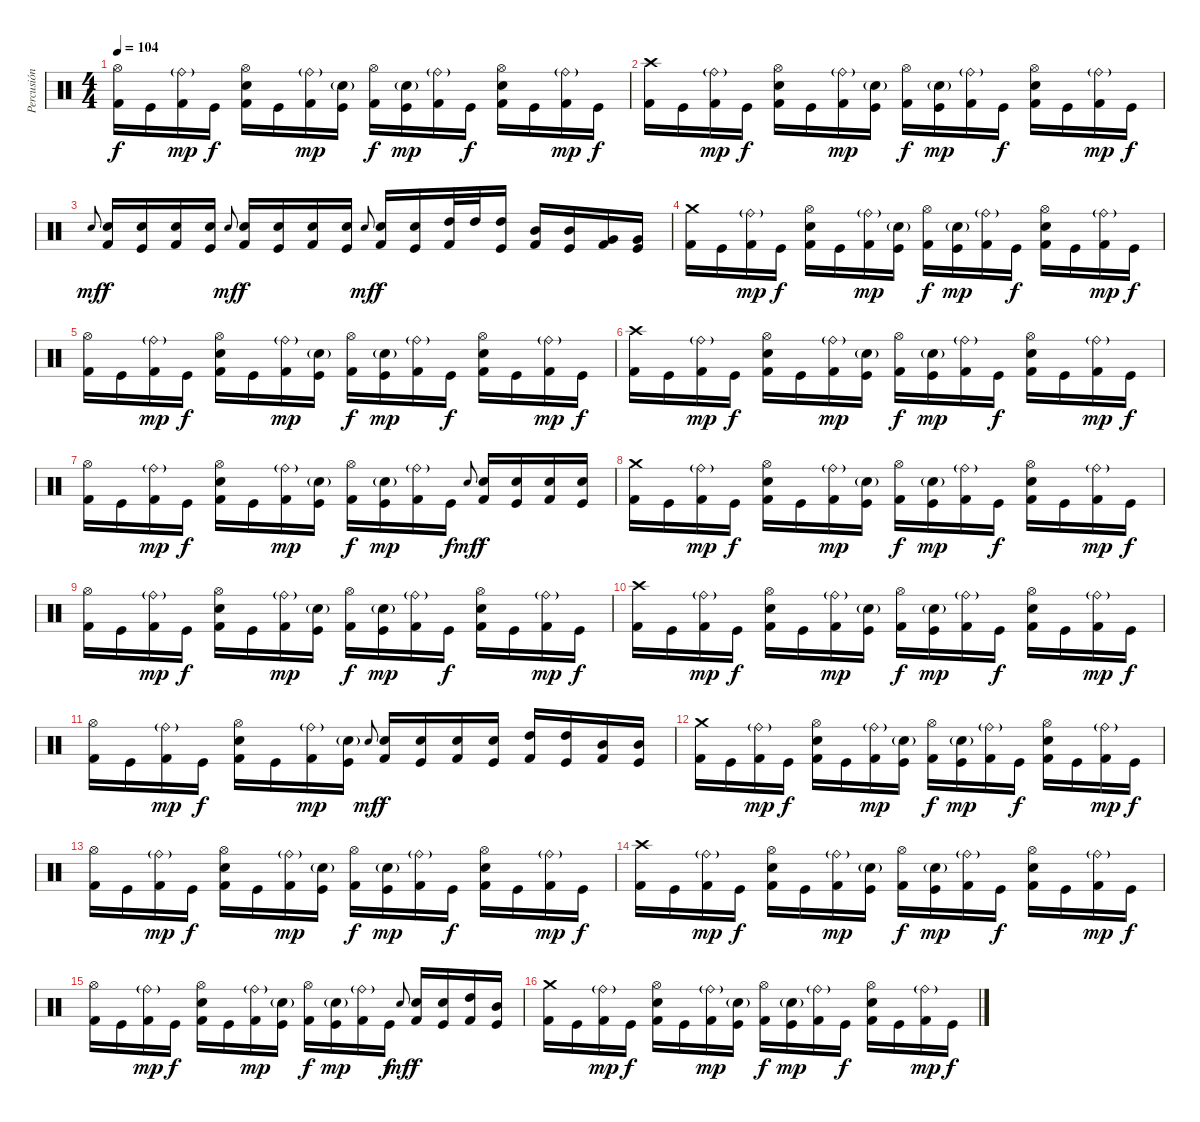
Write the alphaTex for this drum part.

\track ("Percusión" "Percusión") {instrument percussion}
\staff {score}
\articulation defaults
\ts (4 4)
\tempo 104
\clef neutral
\ks c
("Hi-Hat (open)" "Kick (hit) 2").16{dy f} "Kick (hit)".16 ("Ride (bell)"{g} "Kick (hit) 2").16{dy mp} "Kick (hit)".16{dy f} ("Hi-Hat (open)" "Snare (hit) 2" "Kick (hit) 2").16 "Kick (hit)".16 ("Ride (bell)"{g} "Kick (hit) 2").16{dy mp} ("Snare (hit) 2"{g} "Kick (hit)").16 ("Hi-Hat (open)" "Kick (hit) 2").16{dy f} ("Snare (hit) 2"{g} "Kick (hit)").16{dy mp} ("Ride (bell)"{g} "Kick (hit) 2").16 "Kick (hit)".16{dy f} ("Hi-Hat (open)" "Snare (hit) 2" "Kick (hit) 2").16 "Kick (hit)".16 ("Ride (bell)"{g} "Kick (hit) 2").16{dy mp} "Kick (hit)".16{dy f} |
("Crash high (hit)" "Kick (hit) 2").16 "Kick (hit)".16 ("Ride (bell)"{g} "Kick (hit) 2").16{dy mp} "Kick (hit)".16{dy f} ("Hi-Hat (open)" "Snare (hit) 2" "Kick (hit) 2").16 "Kick (hit)".16 ("Ride (bell)"{g} "Kick (hit) 2").16{dy mp} ("Snare (hit) 2"{g} "Kick (hit)").16 ("Hi-Hat (open)" "Kick (hit) 2").16{dy f} ("Snare (hit) 2"{g} "Kick (hit)").16{dy mp} ("Ride (bell)"{g} "Kick (hit) 2").16 "Kick (hit)".16{dy f} ("Hi-Hat (open)" "Snare (hit) 2" "Kick (hit) 2").16 "Kick (hit)".16 ("Ride (bell)"{g} "Kick (hit) 2").16{dy mp} "Kick (hit)".16{dy f} |
"Snare (hit) 2".8{gr onbeat dy mf} ("Snare (hit) 2" "Kick (hit) 2").16{dy f} ("Snare (hit) 2" "Kick (hit)").16 ("Snare (hit) 2" "Kick (hit) 2").16 ("Snare (hit) 2" "Kick (hit)").16 "Snare (hit) 2".8{gr onbeat dy mf} ("Snare (hit) 2" "Kick (hit) 2").16{dy f} ("Snare (hit) 2" "Kick (hit)").16 ("Snare (hit) 2" "Kick (hit) 2").16 ("Snare (hit) 2" "Kick (hit)").16 "Snare (hit) 2".8{gr onbeat dy mf} ("Snare (hit) 2" "Kick (hit) 2").16{dy f} ("Snare (hit) 2" "Kick (hit)").16 ("High Tom (hit)" "Kick (hit) 2").32 "High Tom (hit)".32 ("High Tom (hit)" "Kick (hit)").16 ("Mid Tom (hit)" "Kick (hit) 2").16 ("Mid Tom (hit)" "Kick (hit)").16 ("Very Low Tom (hit)" "Kick (hit) 2").16 ("Very Low Tom (hit)" "Kick (hit)").16 |
("Crash medium (hit)" "Kick (hit) 2").16 "Kick (hit)".16 ("Ride (bell)"{g} "Kick (hit) 2").16{dy mp} "Kick (hit)".16{dy f} ("Hi-Hat (open)" "Snare (hit) 2" "Kick (hit) 2").16 "Kick (hit)".16 ("Ride (bell)"{g} "Kick (hit) 2").16{dy mp} ("Snare (hit) 2"{g} "Kick (hit)").16 ("Hi-Hat (open)" "Kick (hit) 2").16{dy f} ("Snare (hit) 2"{g} "Kick (hit)").16{dy mp} ("Ride (bell)"{g} "Kick (hit) 2").16 "Kick (hit)".16{dy f} ("Hi-Hat (open)" "Snare (hit) 2" "Kick (hit) 2").16 "Kick (hit)".16 ("Ride (bell)"{g} "Kick (hit) 2").16{dy mp} "Kick (hit)".16{dy f} |
("Hi-Hat (open)" "Kick (hit) 2").16 "Kick (hit)".16 ("Ride (bell)"{g} "Kick (hit) 2").16{dy mp} "Kick (hit)".16{dy f} ("Hi-Hat (open)" "Snare (hit) 2" "Kick (hit) 2").16 "Kick (hit)".16 ("Ride (bell)"{g} "Kick (hit) 2").16{dy mp} ("Snare (hit) 2"{g} "Kick (hit)").16 ("Hi-Hat (open)" "Kick (hit) 2").16{dy f} ("Snare (hit) 2"{g} "Kick (hit)").16{dy mp} ("Ride (bell)"{g} "Kick (hit) 2").16 "Kick (hit)".16{dy f} ("Hi-Hat (open)" "Snare (hit) 2" "Kick (hit) 2").16 "Kick (hit)".16 ("Ride (bell)"{g} "Kick (hit) 2").16{dy mp} "Kick (hit)".16{dy f} |
("Crash high (hit)" "Kick (hit) 2").16 "Kick (hit)".16 ("Ride (bell)"{g} "Kick (hit) 2").16{dy mp} "Kick (hit)".16{dy f} ("Hi-Hat (open)" "Snare (hit) 2" "Kick (hit) 2").16 "Kick (hit)".16 ("Ride (bell)"{g} "Kick (hit) 2").16{dy mp} ("Snare (hit) 2"{g} "Kick (hit)").16 ("Hi-Hat (open)" "Kick (hit) 2").16{dy f} ("Snare (hit) 2"{g} "Kick (hit)").16{dy mp} ("Ride (bell)"{g} "Kick (hit) 2").16 "Kick (hit)".16{dy f} ("Hi-Hat (open)" "Snare (hit) 2" "Kick (hit) 2").16 "Kick (hit)".16 ("Ride (bell)"{g} "Kick (hit) 2").16{dy mp} "Kick (hit)".16{dy f} |
("Hi-Hat (open)" "Kick (hit) 2").16 "Kick (hit)".16 ("Ride (bell)"{g} "Kick (hit) 2").16{dy mp} "Kick (hit)".16{dy f} ("Hi-Hat (open)" "Snare (hit) 2" "Kick (hit) 2").16 "Kick (hit)".16 ("Ride (bell)"{g} "Kick (hit) 2").16{dy mp} ("Snare (hit) 2"{g} "Kick (hit)").16 ("Hi-Hat (open)" "Kick (hit) 2").16{dy f} ("Snare (hit) 2"{g} "Kick (hit)").16{dy mp} ("Ride (bell)"{g} "Kick (hit) 2").16 "Kick (hit)".16{dy f} "Snare (hit) 2".8{gr onbeat dy mf} ("Snare (hit) 2" "Kick (hit) 2").16{dy f} ("Snare (hit) 2" "Kick (hit)").16 ("Snare (hit) 2" "Kick (hit) 2").16 ("Snare (hit) 2" "Kick (hit)").16 |
("Crash medium (hit)" "Kick (hit) 2").16 "Kick (hit)".16 ("Ride (bell)"{g} "Kick (hit) 2").16{dy mp} "Kick (hit)".16{dy f} ("Hi-Hat (open)" "Snare (hit) 2" "Kick (hit) 2").16 "Kick (hit)".16 ("Ride (bell)"{g} "Kick (hit) 2").16{dy mp} ("Snare (hit) 2"{g} "Kick (hit)").16 ("Hi-Hat (open)" "Kick (hit) 2").16{dy f} ("Snare (hit) 2"{g} "Kick (hit)").16{dy mp} ("Ride (bell)"{g} "Kick (hit) 2").16 "Kick (hit)".16{dy f} ("Hi-Hat (open)" "Snare (hit) 2" "Kick (hit) 2").16 "Kick (hit)".16 ("Ride (bell)"{g} "Kick (hit) 2").16{dy mp} "Kick (hit)".16{dy f} |
("Hi-Hat (open)" "Kick (hit) 2").16 "Kick (hit)".16 ("Ride (bell)"{g} "Kick (hit) 2").16{dy mp} "Kick (hit)".16{dy f} ("Hi-Hat (open)" "Snare (hit) 2" "Kick (hit) 2").16 "Kick (hit)".16 ("Ride (bell)"{g} "Kick (hit) 2").16{dy mp} ("Snare (hit) 2"{g} "Kick (hit)").16 ("Hi-Hat (open)" "Kick (hit) 2").16{dy f} ("Snare (hit) 2"{g} "Kick (hit)").16{dy mp} ("Ride (bell)"{g} "Kick (hit) 2").16 "Kick (hit)".16{dy f} ("Hi-Hat (open)" "Snare (hit) 2" "Kick (hit) 2").16 "Kick (hit)".16 ("Ride (bell)"{g} "Kick (hit) 2").16{dy mp} "Kick (hit)".16{dy f} |
("Crash high (hit)" "Kick (hit) 2").16 "Kick (hit)".16 ("Ride (bell)"{g} "Kick (hit) 2").16{dy mp} "Kick (hit)".16{dy f} ("Hi-Hat (open)" "Snare (hit) 2" "Kick (hit) 2").16 "Kick (hit)".16 ("Ride (bell)"{g} "Kick (hit) 2").16{dy mp} ("Snare (hit) 2"{g} "Kick (hit)").16 ("Hi-Hat (open)" "Kick (hit) 2").16{dy f} ("Snare (hit) 2"{g} "Kick (hit)").16{dy mp} ("Ride (bell)"{g} "Kick (hit) 2").16 "Kick (hit)".16{dy f} ("Hi-Hat (open)" "Snare (hit) 2" "Kick (hit) 2").16 "Kick (hit)".16 ("Ride (bell)"{g} "Kick (hit) 2").16{dy mp} "Kick (hit)".16{dy f} |
("Hi-Hat (open)" "Kick (hit) 2").16 "Kick (hit)".16 ("Ride (bell)"{g} "Kick (hit) 2").16{dy mp} "Kick (hit)".16{dy f} ("Hi-Hat (open)" "Snare (hit) 2" "Kick (hit) 2").16 "Kick (hit)".16 ("Ride (bell)"{g} "Kick (hit) 2").16{dy mp} ("Snare (hit) 2"{g} "Kick (hit)").16 "Snare (hit) 2".8{gr onbeat dy mf} ("Snare (hit) 2" "Kick (hit) 2").16{dy f} ("Snare (hit) 2" "Kick (hit)").16 ("Snare (hit) 2" "Kick (hit) 2").16 ("Snare (hit) 2" "Kick (hit)").16 ("High Tom (hit)" "Kick (hit) 2").16 ("High Tom (hit)" "Kick (hit)").16 ("Mid Tom (hit)" "Kick (hit) 2").16 ("Mid Tom (hit)" "Kick (hit)").16 |
("Crash medium (hit)" "Kick (hit) 2").16 "Kick (hit)".16 ("Ride (bell)"{g} "Kick (hit) 2").16{dy mp} "Kick (hit)".16{dy f} ("Hi-Hat (open)" "Snare (hit) 2" "Kick (hit) 2").16 "Kick (hit)".16 ("Ride (bell)"{g} "Kick (hit) 2").16{dy mp} ("Snare (hit) 2"{g} "Kick (hit)").16 ("Hi-Hat (open)" "Kick (hit) 2").16{dy f} ("Snare (hit) 2"{g} "Kick (hit)").16{dy mp} ("Ride (bell)"{g} "Kick (hit) 2").16 "Kick (hit)".16{dy f} ("Hi-Hat (open)" "Snare (hit) 2" "Kick (hit) 2").16 "Kick (hit)".16 ("Ride (bell)"{g} "Kick (hit) 2").16{dy mp} "Kick (hit)".16{dy f} |
("Hi-Hat (open)" "Kick (hit) 2").16 "Kick (hit)".16 ("Ride (bell)"{g} "Kick (hit) 2").16{dy mp} "Kick (hit)".16{dy f} ("Hi-Hat (open)" "Snare (hit) 2" "Kick (hit) 2").16 "Kick (hit)".16 ("Ride (bell)"{g} "Kick (hit) 2").16{dy mp} ("Snare (hit) 2"{g} "Kick (hit)").16 ("Hi-Hat (open)" "Kick (hit) 2").16{dy f} ("Snare (hit) 2"{g} "Kick (hit)").16{dy mp} ("Ride (bell)"{g} "Kick (hit) 2").16 "Kick (hit)".16{dy f} ("Hi-Hat (open)" "Snare (hit) 2" "Kick (hit) 2").16 "Kick (hit)".16 ("Ride (bell)"{g} "Kick (hit) 2").16{dy mp} "Kick (hit)".16{dy f} |
("Crash high (hit)" "Kick (hit) 2").16 "Kick (hit)".16 ("Ride (bell)"{g} "Kick (hit) 2").16{dy mp} "Kick (hit)".16{dy f} ("Hi-Hat (open)" "Snare (hit) 2" "Kick (hit) 2").16 "Kick (hit)".16 ("Ride (bell)"{g} "Kick (hit) 2").16{dy mp} ("Snare (hit) 2"{g} "Kick (hit)").16 ("Hi-Hat (open)" "Kick (hit) 2").16{dy f} ("Snare (hit) 2"{g} "Kick (hit)").16{dy mp} ("Ride (bell)"{g} "Kick (hit) 2").16 "Kick (hit)".16{dy f} ("Hi-Hat (open)" "Snare (hit) 2" "Kick (hit) 2").16 "Kick (hit)".16 ("Ride (bell)"{g} "Kick (hit) 2").16{dy mp} "Kick (hit)".16{dy f} |
("Hi-Hat (open)" "Kick (hit) 2").16 "Kick (hit)".16 ("Ride (bell)"{g} "Kick (hit) 2").16{dy mp} "Kick (hit)".16{dy f} ("Hi-Hat (open)" "Snare (hit) 2" "Kick (hit) 2").16 "Kick (hit)".16 ("Ride (bell)"{g} "Kick (hit) 2").16{dy mp} ("Snare (hit) 2"{g} "Kick (hit)").16 ("Hi-Hat (open)" "Kick (hit) 2").16{dy f} ("Snare (hit) 2"{g} "Kick (hit)").16{dy mp} ("Ride (bell)"{g} "Kick (hit) 2").16 "Kick (hit)".16{dy f} "Snare (hit) 2".8{gr onbeat dy mf} ("Snare (hit) 2" "Kick (hit) 2").16{dy f} ("Snare (hit) 2" "Kick (hit)").16 ("High Tom (hit)" "Kick (hit) 2").16 ("Mid Tom (hit)" "Kick (hit)").16 |
("Crash medium (hit)" "Kick (hit) 2").16 "Kick (hit)".16 ("Ride (bell)"{g} "Kick (hit) 2").16{dy mp} "Kick (hit)".16{dy f} ("Hi-Hat (open)" "Snare (hit) 2" "Kick (hit) 2").16 "Kick (hit)".16 ("Ride (bell)"{g} "Kick (hit) 2").16{dy mp} ("Snare (hit) 2"{g} "Kick (hit)").16 ("Hi-Hat (open)" "Kick (hit) 2").16{dy f} ("Snare (hit) 2"{g} "Kick (hit)").16{dy mp} ("Ride (bell)"{g} "Kick (hit) 2").16 "Kick (hit)".16{dy f} ("Hi-Hat (open)" "Snare (hit) 2" "Kick (hit) 2").16 "Kick (hit)".16 ("Ride (bell)"{g} "Kick (hit) 2").16{dy mp} "Kick (hit)".16{dy f}
